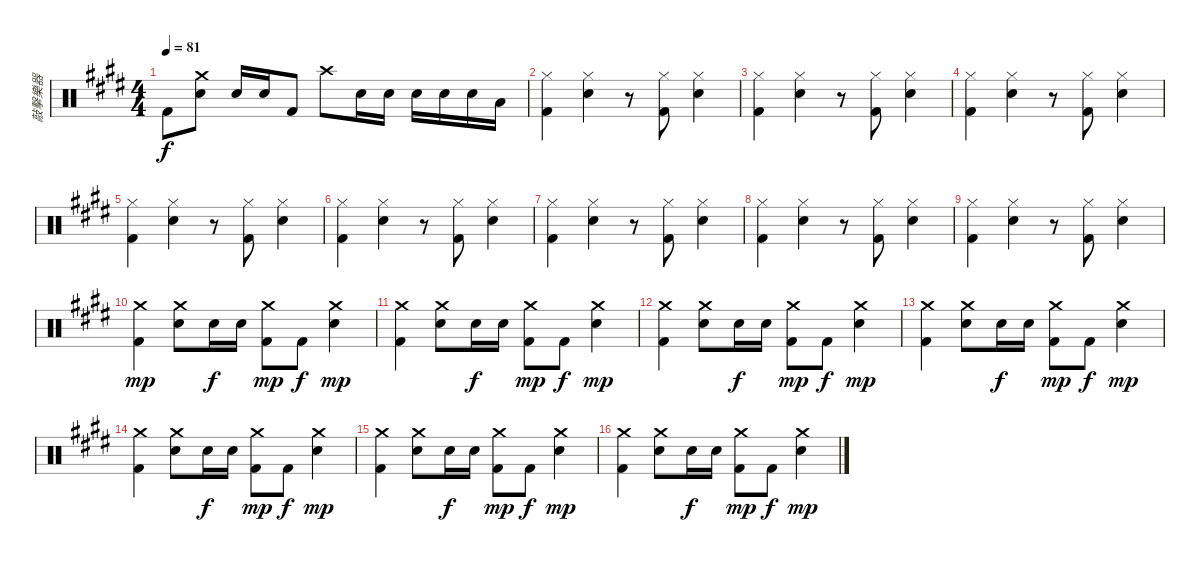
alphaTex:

\track ("敲擊樂器" "敲擊樂器") {instrument percussion}
\staff {score}
\articulation defaults
\ts (4 4)
\tempo 81
\clef neutral
\ks e "Kick (hit) 2".8{dy f}
("Crash medium (hit)" "Electric Snare (hit)").8 "Snare (hit) 2".16 "Electric Snare (hit)".16 "Kick (hit) 2".8 "Crash high (hit)".8 "Snare (hit) 2".16 "Electric Snare (hit)".16 "Electric Snare (hit)".16 "Electric Snare (hit)".16 "Electric Snare (hit)".16 "Low Floor Tom (hit)".16 |
("Hi-Hat (closed)" "Kick (hit) 2").4 ("Hi-Hat (closed)" "Snare (hit) 2").4 r.8 ("Hi-Hat (closed)" "Kick (hit) 2").8 ("Hi-Hat (closed)" "Snare (hit) 2").4 |
("Hi-Hat (closed)" "Kick (hit) 2").4 ("Hi-Hat (closed)" "Snare (hit) 2").4 r.8 ("Hi-Hat (closed)" "Kick (hit) 2").8 ("Hi-Hat (closed)" "Snare (hit) 2").4 |
("Hi-Hat (closed)" "Kick (hit) 2").4 ("Hi-Hat (closed)" "Snare (hit) 2").4 r.8 ("Hi-Hat (closed)" "Kick (hit) 2").8 ("Hi-Hat (closed)" "Snare (hit) 2").4 |
("Hi-Hat (closed)" "Kick (hit) 2").4 ("Hi-Hat (closed)" "Snare (hit) 2").4 r.8 ("Hi-Hat (closed)" "Kick (hit) 2").8 ("Hi-Hat (closed)" "Snare (hit) 2").4 |
("Hi-Hat (closed)" "Kick (hit) 2").4 ("Hi-Hat (closed)" "Snare (hit) 2").4 r.8 ("Hi-Hat (closed)" "Kick (hit) 2").8 ("Hi-Hat (closed)" "Snare (hit) 2").4 |
("Hi-Hat (closed)" "Kick (hit) 2").4 ("Hi-Hat (closed)" "Snare (hit) 2").4 r.8 ("Hi-Hat (closed)" "Kick (hit) 2").8 ("Hi-Hat (closed)" "Snare (hit) 2").4 |
("Hi-Hat (closed)" "Kick (hit) 2").4 ("Hi-Hat (closed)" "Snare (hit) 2").4 r.8 ("Hi-Hat (closed)" "Kick (hit) 2").8 ("Hi-Hat (closed)" "Snare (hit) 2").4 |
("Hi-Hat (closed)" "Kick (hit) 2").4 ("Hi-Hat (closed)" "Snare (hit) 2").4 r.8 ("Hi-Hat (closed)" "Kick (hit) 2").8 ("Hi-Hat (closed)" "Snare (hit) 2").4 |
("Crash medium (hit)" "Kick (hit) 2").4{dy mp} ("Crash medium (hit)" "Electric Snare (hit)").8 "Snare (hit) 2".16{dy f} "Electric Snare (hit)".16 ("Crash medium (hit)" "Kick (hit) 2").8{dy mp} "Kick (hit) 2".8{dy f} ("Crash medium (hit)" "Electric Snare (hit)").4{dy mp} |
("Crash medium (hit)" "Kick (hit) 2").4 ("Crash medium (hit)" "Electric Snare (hit)").8 "Snare (hit) 2".16{dy f} "Electric Snare (hit)".16 ("Crash medium (hit)" "Kick (hit) 2").8{dy mp} "Kick (hit) 2".8{dy f} ("Crash medium (hit)" "Electric Snare (hit)").4{dy mp} |
("Crash medium (hit)" "Kick (hit) 2").4 ("Crash medium (hit)" "Electric Snare (hit)").8 "Snare (hit) 2".16{dy f} "Electric Snare (hit)".16 ("Crash medium (hit)" "Kick (hit) 2").8{dy mp} "Kick (hit) 2".8{dy f} ("Crash medium (hit)" "Electric Snare (hit)").4{dy mp} |
("Crash medium (hit)" "Kick (hit) 2").4 ("Crash medium (hit)" "Electric Snare (hit)").8 "Snare (hit) 2".16{dy f} "Electric Snare (hit)".16 ("Crash medium (hit)" "Kick (hit) 2").8{dy mp} "Kick (hit) 2".8{dy f} ("Crash medium (hit)" "Electric Snare (hit)").4{dy mp} |
("Crash medium (hit)" "Kick (hit) 2").4 ("Crash medium (hit)" "Electric Snare (hit)").8 "Snare (hit) 2".16{dy f} "Electric Snare (hit)".16 ("Crash medium (hit)" "Kick (hit) 2").8{dy mp} "Kick (hit) 2".8{dy f} ("Crash medium (hit)" "Electric Snare (hit)").4{dy mp} |
("Crash medium (hit)" "Kick (hit) 2").4 ("Crash medium (hit)" "Electric Snare (hit)").8 "Snare (hit) 2".16{dy f} "Electric Snare (hit)".16 ("Crash medium (hit)" "Kick (hit) 2").8{dy mp} "Kick (hit) 2".8{dy f} ("Crash medium (hit)" "Electric Snare (hit)").4{dy mp} |
("Crash medium (hit)" "Kick (hit) 2").4 ("Crash medium (hit)" "Electric Snare (hit)").8 "Snare (hit) 2".16{dy f} "Electric Snare (hit)".16 ("Crash medium (hit)" "Kick (hit) 2").8{dy mp} "Kick (hit) 2".8{dy f} ("Crash medium (hit)" "Electric Snare (hit)").4{dy mp}
